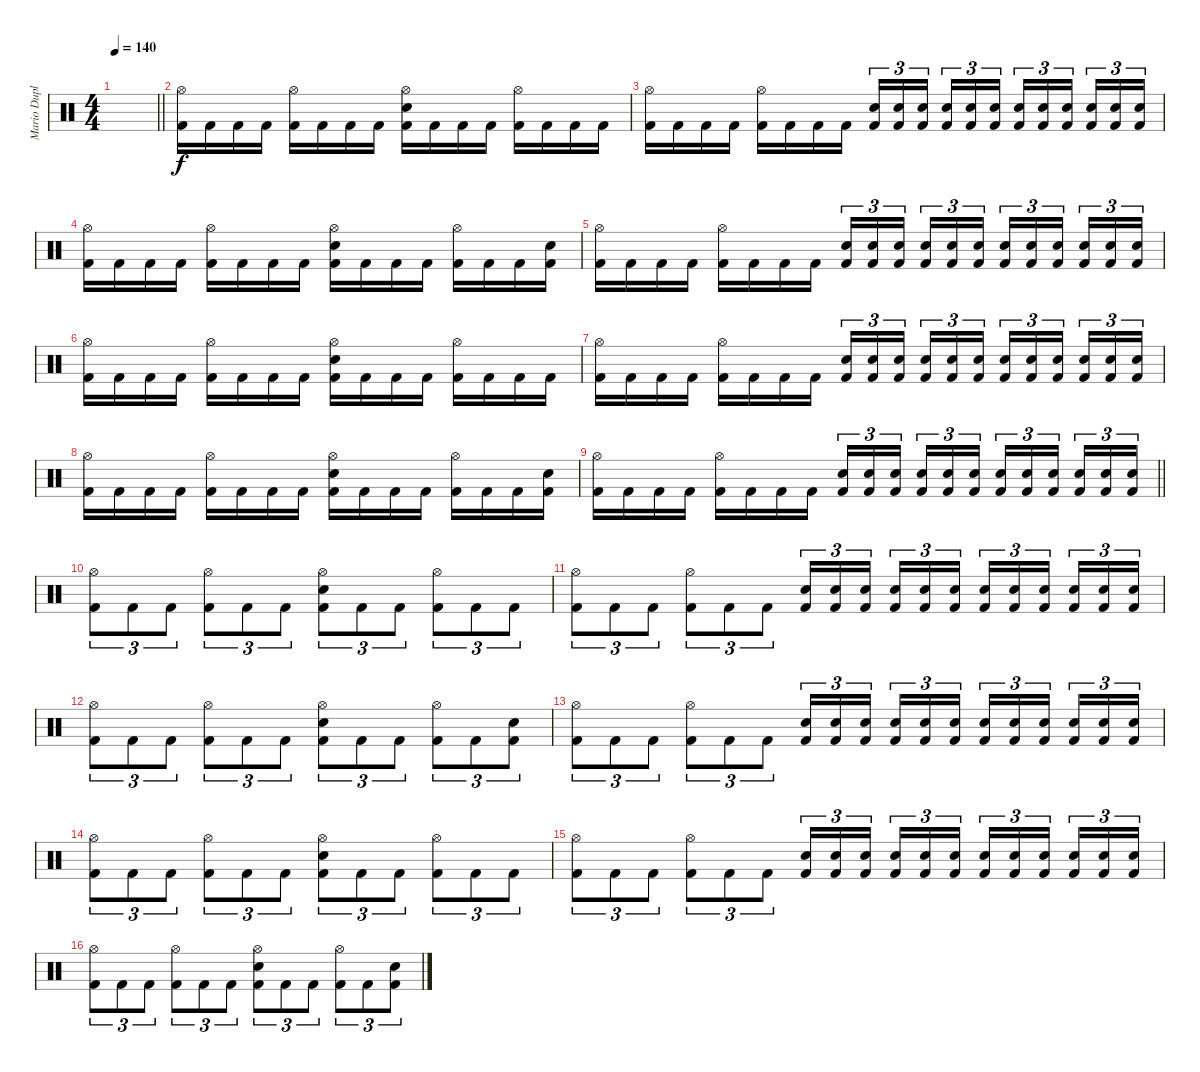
\track ("Mario Duplantier" "Mario Dupl") {instrument percussion}
\staff {score}
\articulation defaults
\ts (4 4)
\tempo 140
\clef neutral
\barLineRight lightlight
\ks c
|
\section ("" "")
("Hi-Hat (open)" "Kick (hit) 2").16 "Kick (hit) 2".16 "Kick (hit) 2".16 "Kick (hit) 2".16 ("Hi-Hat (open)" "Kick (hit) 2").16 "Kick (hit) 2".16 "Kick (hit) 2".16 "Kick (hit) 2".16 ("Hi-Hat (open)" "Electric Snare (hit)" "Kick (hit) 2").16 "Kick (hit) 2".16 "Kick (hit) 2".16 "Kick (hit) 2".16 ("Hi-Hat (open)" "Kick (hit) 2").16 "Kick (hit) 2".16 "Kick (hit) 2".16 "Kick (hit) 2".16 |
("Hi-Hat (open)" "Kick (hit) 2").16 "Kick (hit) 2".16 "Kick (hit) 2".16 "Kick (hit) 2".16 ("Hi-Hat (open)" "Kick (hit) 2").16 "Kick (hit) 2".16 "Kick (hit) 2".16 "Kick (hit) 2".16 ("Snare (hit) 2" "Kick (hit) 2").16{tu (3 2)} ("Snare (hit) 2" "Kick (hit) 2").16{tu (3 2)} ("Snare (hit) 2" "Kick (hit) 2").16{tu (3 2) beam splitsecondary} ("Snare (hit) 2" "Kick (hit) 2").16{tu (3 2)} ("Snare (hit) 2" "Kick (hit) 2").16{tu (3 2)} ("Snare (hit) 2" "Kick (hit) 2").16{tu (3 2)} ("Snare (hit) 2" "Kick (hit) 2").16{tu (3 2)} ("Snare (hit) 2" "Kick (hit) 2").16{tu (3 2)} ("Snare (hit) 2" "Kick (hit) 2").16{tu (3 2) beam splitsecondary} ("Snare (hit) 2" "Kick (hit) 2").16{tu (3 2)} ("Snare (hit) 2" "Kick (hit) 2").16{tu (3 2)} ("Snare (hit) 2" "Kick (hit) 2").16{tu (3 2)} |
("Hi-Hat (open)" "Kick (hit) 2").16 "Kick (hit) 2".16 "Kick (hit) 2".16 "Kick (hit) 2".16 ("Hi-Hat (open)" "Kick (hit) 2").16 "Kick (hit) 2".16 "Kick (hit) 2".16 "Kick (hit) 2".16 ("Hi-Hat (open)" "Electric Snare (hit)" "Kick (hit) 2").16 "Kick (hit) 2".16 "Kick (hit) 2".16 "Kick (hit) 2".16 ("Hi-Hat (open)" "Kick (hit) 2").16 "Kick (hit) 2".16 "Kick (hit) 2".16 ("Electric Snare (hit)" "Kick (hit) 2").16 |
("Hi-Hat (open)" "Kick (hit) 2").16 "Kick (hit) 2".16 "Kick (hit) 2".16 "Kick (hit) 2".16 ("Hi-Hat (open)" "Kick (hit) 2").16 "Kick (hit) 2".16 "Kick (hit) 2".16 "Kick (hit) 2".16 ("Snare (hit) 2" "Kick (hit) 2").16{tu (3 2)} ("Snare (hit) 2" "Kick (hit) 2").16{tu (3 2)} ("Snare (hit) 2" "Kick (hit) 2").16{tu (3 2) beam splitsecondary} ("Snare (hit) 2" "Kick (hit) 2").16{tu (3 2)} ("Snare (hit) 2" "Kick (hit) 2").16{tu (3 2)} ("Snare (hit) 2" "Kick (hit) 2").16{tu (3 2)} ("Snare (hit) 2" "Kick (hit) 2").16{tu (3 2)} ("Snare (hit) 2" "Kick (hit) 2").16{tu (3 2)} ("Snare (hit) 2" "Kick (hit) 2").16{tu (3 2) beam splitsecondary} ("Snare (hit) 2" "Kick (hit) 2").16{tu (3 2)} ("Snare (hit) 2" "Kick (hit) 2").16{tu (3 2)} ("Snare (hit) 2" "Kick (hit) 2").16{tu (3 2)} |
("Hi-Hat (open)" "Kick (hit) 2").16 "Kick (hit) 2".16 "Kick (hit) 2".16 "Kick (hit) 2".16 ("Hi-Hat (open)" "Kick (hit) 2").16 "Kick (hit) 2".16 "Kick (hit) 2".16 "Kick (hit) 2".16 ("Hi-Hat (open)" "Electric Snare (hit)" "Kick (hit) 2").16 "Kick (hit) 2".16 "Kick (hit) 2".16 "Kick (hit) 2".16 ("Hi-Hat (open)" "Kick (hit) 2").16 "Kick (hit) 2".16 "Kick (hit) 2".16 "Kick (hit) 2".16 |
("Hi-Hat (open)" "Kick (hit) 2").16 "Kick (hit) 2".16 "Kick (hit) 2".16 "Kick (hit) 2".16 ("Hi-Hat (open)" "Kick (hit) 2").16 "Kick (hit) 2".16 "Kick (hit) 2".16 "Kick (hit) 2".16 ("Snare (hit) 2" "Kick (hit) 2").16{tu (3 2)} ("Snare (hit) 2" "Kick (hit) 2").16{tu (3 2)} ("Snare (hit) 2" "Kick (hit) 2").16{tu (3 2) beam splitsecondary} ("Snare (hit) 2" "Kick (hit) 2").16{tu (3 2)} ("Snare (hit) 2" "Kick (hit) 2").16{tu (3 2)} ("Snare (hit) 2" "Kick (hit) 2").16{tu (3 2)} ("Snare (hit) 2" "Kick (hit) 2").16{tu (3 2)} ("Snare (hit) 2" "Kick (hit) 2").16{tu (3 2)} ("Snare (hit) 2" "Kick (hit) 2").16{tu (3 2) beam splitsecondary} ("Snare (hit) 2" "Kick (hit) 2").16{tu (3 2)} ("Snare (hit) 2" "Kick (hit) 2").16{tu (3 2)} ("Snare (hit) 2" "Kick (hit) 2").16{tu (3 2)} |
("Hi-Hat (open)" "Kick (hit) 2").16 "Kick (hit) 2".16 "Kick (hit) 2".16 "Kick (hit) 2".16 ("Hi-Hat (open)" "Kick (hit) 2").16 "Kick (hit) 2".16 "Kick (hit) 2".16 "Kick (hit) 2".16 ("Hi-Hat (open)" "Electric Snare (hit)" "Kick (hit) 2").16 "Kick (hit) 2".16 "Kick (hit) 2".16 "Kick (hit) 2".16 ("Hi-Hat (open)" "Kick (hit) 2").16 "Kick (hit) 2".16 "Kick (hit) 2".16 ("Electric Snare (hit)" "Kick (hit) 2").16 |
\barLineRight lightlight
("Hi-Hat (open)" "Kick (hit) 2").16 "Kick (hit) 2".16 "Kick (hit) 2".16 "Kick (hit) 2".16 ("Hi-Hat (open)" "Kick (hit) 2").16 "Kick (hit) 2".16 "Kick (hit) 2".16 "Kick (hit) 2".16 ("Snare (hit) 2" "Kick (hit) 2").16{tu (3 2)} ("Snare (hit) 2" "Kick (hit) 2").16{tu (3 2)} ("Snare (hit) 2" "Kick (hit) 2").16{tu (3 2) beam splitsecondary} ("Snare (hit) 2" "Kick (hit) 2").16{tu (3 2)} ("Snare (hit) 2" "Kick (hit) 2").16{tu (3 2)} ("Snare (hit) 2" "Kick (hit) 2").16{tu (3 2)} ("Snare (hit) 2" "Kick (hit) 2").16{tu (3 2)} ("Snare (hit) 2" "Kick (hit) 2").16{tu (3 2)} ("Snare (hit) 2" "Kick (hit) 2").16{tu (3 2) beam splitsecondary} ("Snare (hit) 2" "Kick (hit) 2").16{tu (3 2)} ("Snare (hit) 2" "Kick (hit) 2").16{tu (3 2)} ("Snare (hit) 2" "Kick (hit) 2").16{tu (3 2)} |
\section ("" "")
("Hi-Hat (open)" "Kick (hit) 2").8{tu (3 2)} "Kick (hit) 2".8{tu (3 2)} "Kick (hit) 2".8{tu (3 2)} ("Hi-Hat (open)" "Kick (hit) 2").8{tu (3 2)} "Kick (hit) 2".8{tu (3 2)} "Kick (hit) 2".8{tu (3 2)} ("Hi-Hat (open)" "Electric Snare (hit)" "Kick (hit) 2").8{tu (3 2)} "Kick (hit) 2".8{tu (3 2)} "Kick (hit) 2".8{tu (3 2)} ("Hi-Hat (open)" "Kick (hit) 2").8{tu (3 2)} "Kick (hit) 2".8{tu (3 2)} "Kick (hit) 2".8{tu (3 2)} |
("Hi-Hat (open)" "Kick (hit) 2").8{tu (3 2)} "Kick (hit) 2".8{tu (3 2)} "Kick (hit) 2".8{tu (3 2)} ("Hi-Hat (open)" "Kick (hit) 2").8{tu (3 2)} "Kick (hit) 2".8{tu (3 2)} "Kick (hit) 2".8{tu (3 2)} ("Electric Snare (hit)" "Kick (hit) 2").16{tu (3 2)} ("Electric Snare (hit)" "Kick (hit) 2").16{tu (3 2)} ("Electric Snare (hit)" "Kick (hit) 2").16{tu (3 2) beam splitsecondary} ("Electric Snare (hit)" "Kick (hit) 2").16{tu (3 2)} ("Electric Snare (hit)" "Kick (hit) 2").16{tu (3 2)} ("Electric Snare (hit)" "Kick (hit) 2").16{tu (3 2)} ("Electric Snare (hit)" "Kick (hit) 2").16{tu (3 2)} ("Electric Snare (hit)" "Kick (hit) 2").16{tu (3 2)} ("Electric Snare (hit)" "Kick (hit) 2").16{tu (3 2) beam splitsecondary} ("Electric Snare (hit)" "Kick (hit) 2").16{tu (3 2)} ("Electric Snare (hit)" "Kick (hit) 2").16{tu (3 2)} ("Electric Snare (hit)" "Kick (hit) 2").16{tu (3 2)} |
("Hi-Hat (open)" "Kick (hit) 2").8{tu (3 2)} "Kick (hit) 2".8{tu (3 2)} "Kick (hit) 2".8{tu (3 2)} ("Hi-Hat (open)" "Kick (hit) 2").8{tu (3 2)} "Kick (hit) 2".8{tu (3 2)} "Kick (hit) 2".8{tu (3 2)} ("Hi-Hat (open)" "Electric Snare (hit)" "Kick (hit) 2").8{tu (3 2)} "Kick (hit) 2".8{tu (3 2)} "Kick (hit) 2".8{tu (3 2)} ("Hi-Hat (open)" "Kick (hit) 2").8{tu (3 2)} "Kick (hit) 2".8{tu (3 2)} ("Electric Snare (hit)" "Kick (hit) 2").8{tu (3 2)} |
("Hi-Hat (open)" "Kick (hit) 2").8{tu (3 2)} "Kick (hit) 2".8{tu (3 2)} "Kick (hit) 2".8{tu (3 2)} ("Hi-Hat (open)" "Kick (hit) 2").8{tu (3 2)} "Kick (hit) 2".8{tu (3 2)} "Kick (hit) 2".8{tu (3 2)} ("Electric Snare (hit)" "Kick (hit) 2").16{tu (3 2)} ("Electric Snare (hit)" "Kick (hit) 2").16{tu (3 2)} ("Electric Snare (hit)" "Kick (hit) 2").16{tu (3 2) beam splitsecondary} ("Electric Snare (hit)" "Kick (hit) 2").16{tu (3 2)} ("Electric Snare (hit)" "Kick (hit) 2").16{tu (3 2)} ("Electric Snare (hit)" "Kick (hit) 2").16{tu (3 2)} ("Electric Snare (hit)" "Kick (hit) 2").16{tu (3 2)} ("Electric Snare (hit)" "Kick (hit) 2").16{tu (3 2)} ("Electric Snare (hit)" "Kick (hit) 2").16{tu (3 2) beam splitsecondary} ("Electric Snare (hit)" "Kick (hit) 2").16{tu (3 2)} ("Electric Snare (hit)" "Kick (hit) 2").16{tu (3 2)} ("Electric Snare (hit)" "Kick (hit) 2").16{tu (3 2)} |
("Hi-Hat (open)" "Kick (hit) 2").8{tu (3 2)} "Kick (hit) 2".8{tu (3 2)} "Kick (hit) 2".8{tu (3 2)} ("Hi-Hat (open)" "Kick (hit) 2").8{tu (3 2)} "Kick (hit) 2".8{tu (3 2)} "Kick (hit) 2".8{tu (3 2)} ("Hi-Hat (open)" "Electric Snare (hit)" "Kick (hit) 2").8{tu (3 2)} "Kick (hit) 2".8{tu (3 2)} "Kick (hit) 2".8{tu (3 2)} ("Hi-Hat (open)" "Kick (hit) 2").8{tu (3 2)} "Kick (hit) 2".8{tu (3 2)} "Kick (hit) 2".8{tu (3 2)} |
("Hi-Hat (open)" "Kick (hit) 2").8{tu (3 2)} "Kick (hit) 2".8{tu (3 2)} "Kick (hit) 2".8{tu (3 2)} ("Hi-Hat (open)" "Kick (hit) 2").8{tu (3 2)} "Kick (hit) 2".8{tu (3 2)} "Kick (hit) 2".8{tu (3 2)} ("Electric Snare (hit)" "Kick (hit) 2").16{tu (3 2)} ("Electric Snare (hit)" "Kick (hit) 2").16{tu (3 2)} ("Electric Snare (hit)" "Kick (hit) 2").16{tu (3 2) beam splitsecondary} ("Electric Snare (hit)" "Kick (hit) 2").16{tu (3 2)} ("Electric Snare (hit)" "Kick (hit) 2").16{tu (3 2)} ("Electric Snare (hit)" "Kick (hit) 2").16{tu (3 2)} ("Electric Snare (hit)" "Kick (hit) 2").16{tu (3 2)} ("Electric Snare (hit)" "Kick (hit) 2").16{tu (3 2)} ("Electric Snare (hit)" "Kick (hit) 2").16{tu (3 2) beam splitsecondary} ("Electric Snare (hit)" "Kick (hit) 2").16{tu (3 2)} ("Electric Snare (hit)" "Kick (hit) 2").16{tu (3 2)} ("Electric Snare (hit)" "Kick (hit) 2").16{tu (3 2)} |
("Hi-Hat (open)" "Kick (hit) 2").8{tu (3 2)} "Kick (hit) 2".8{tu (3 2)} "Kick (hit) 2".8{tu (3 2)} ("Hi-Hat (open)" "Kick (hit) 2").8{tu (3 2)} "Kick (hit) 2".8{tu (3 2)} "Kick (hit) 2".8{tu (3 2)} ("Hi-Hat (open)" "Electric Snare (hit)" "Kick (hit) 2").8{tu (3 2)} "Kick (hit) 2".8{tu (3 2)} "Kick (hit) 2".8{tu (3 2)} ("Hi-Hat (open)" "Kick (hit) 2").8{tu (3 2)} "Kick (hit) 2".8{tu (3 2)} ("Electric Snare (hit)" "Kick (hit) 2").8{tu (3 2)}
